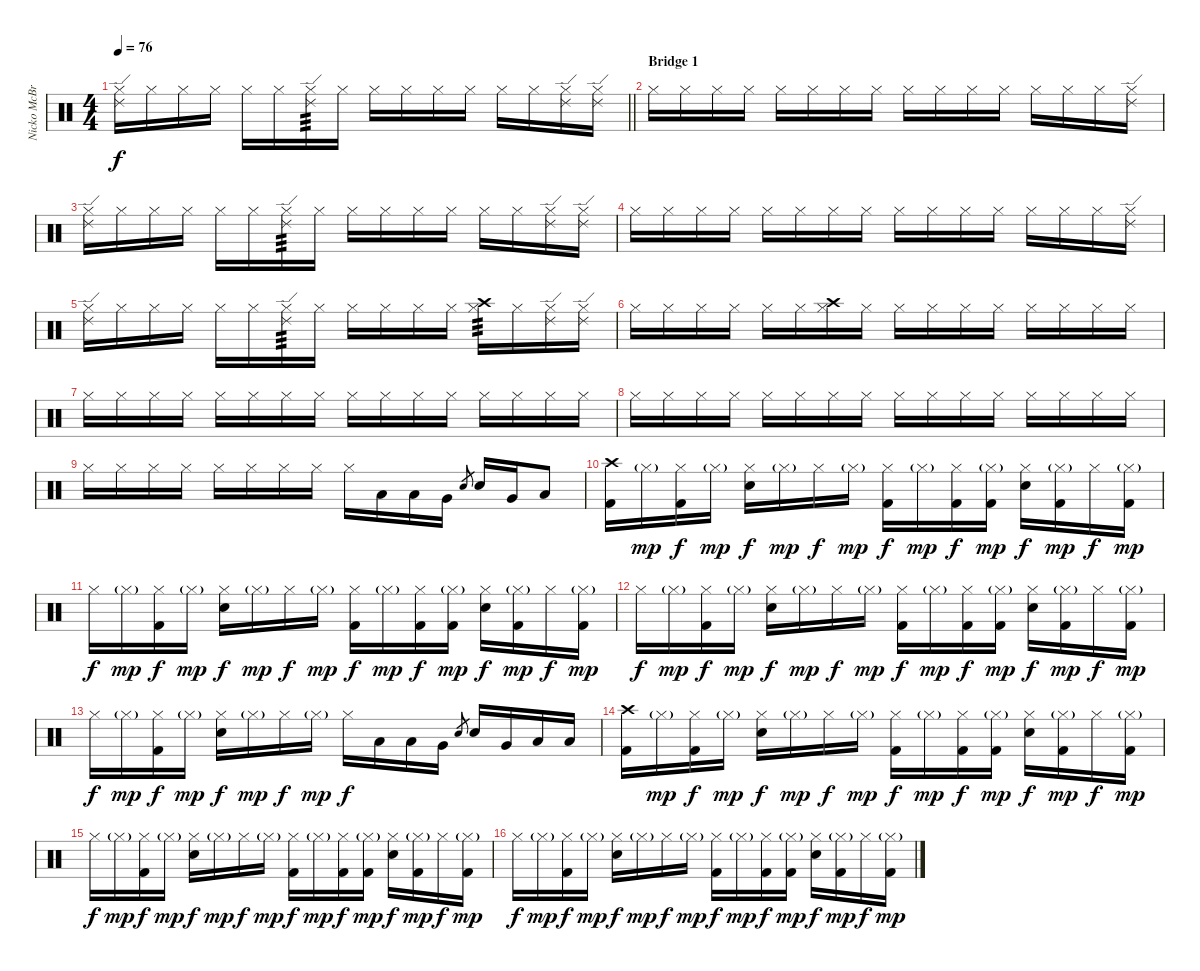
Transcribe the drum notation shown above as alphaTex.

\track ("Nicko McBrain" "Nicko McBr") {instrument percussion}
\staff {score}
\articulation defaults
\ts (4 4)
\tempo 76
\clef neutral
\barLineRight lightlight
\ks c
("Ride (edge) 2" "Hi-Hat (closed)").16{dy f} "Hi-Hat (closed)".16 "Hi-Hat (closed)".16 "Hi-Hat (closed)".16 "Hi-Hat (closed)".16 "Hi-Hat (closed)".16 ("Ride (edge) 2" "Hi-Hat (closed)").16{tp 3} "Hi-Hat (closed)".16 "Hi-Hat (closed)".16 "Hi-Hat (closed)".16 "Hi-Hat (closed)".16 "Hi-Hat (closed)".16 "Hi-Hat (closed)".16 "Hi-Hat (closed)".16 ("Ride (edge) 2" "Hi-Hat (closed)").16 ("Ride (edge) 2" "Hi-Hat (closed)").16 |
\section ("" "Bridge 1")
"Hi-Hat (closed)".16 "Hi-Hat (closed)".16 "Hi-Hat (closed)".16 "Hi-Hat (closed)".16 "Hi-Hat (closed)".16 "Hi-Hat (closed)".16 "Hi-Hat (closed)".16 "Hi-Hat (closed)".16 "Hi-Hat (closed)".16 "Hi-Hat (closed)".16 "Hi-Hat (closed)".16 "Hi-Hat (closed)".16 "Hi-Hat (closed)".16 "Hi-Hat (closed)".16 "Hi-Hat (closed)".16 ("Ride (edge) 2" "Hi-Hat (closed)").16 |
("Ride (edge) 2" "Hi-Hat (closed)").16 "Hi-Hat (closed)".16 "Hi-Hat (closed)".16 "Hi-Hat (closed)".16 "Hi-Hat (closed)".16 "Hi-Hat (closed)".16 ("Ride (edge) 2" "Hi-Hat (closed)").16{tp 3} "Hi-Hat (closed)".16 "Hi-Hat (closed)".16 "Hi-Hat (closed)".16 "Hi-Hat (closed)".16 "Hi-Hat (closed)".16 "Hi-Hat (closed)".16 "Hi-Hat (closed)".16 ("Ride (edge) 2" "Hi-Hat (closed)").16 ("Ride (edge) 2" "Hi-Hat (closed)").16 |
"Hi-Hat (closed)".16 "Hi-Hat (closed)".16 "Hi-Hat (closed)".16 "Hi-Hat (closed)".16 "Hi-Hat (closed)".16 "Hi-Hat (closed)".16 "Hi-Hat (closed)".16 "Hi-Hat (closed)".16 "Hi-Hat (closed)".16 "Hi-Hat (closed)".16 "Hi-Hat (closed)".16 "Hi-Hat (closed)".16 "Hi-Hat (closed)".16 "Hi-Hat (closed)".16 "Hi-Hat (closed)".16 ("Ride (edge) 2" "Hi-Hat (closed)").16 |
("Ride (edge) 2" "Hi-Hat (closed)").16 "Hi-Hat (closed)".16 "Hi-Hat (closed)".16 "Hi-Hat (closed)".16 "Hi-Hat (closed)".16 "Hi-Hat (closed)".16 ("Ride (edge) 2" "Hi-Hat (closed)").16{tp 3} "Hi-Hat (closed)".16 "Hi-Hat (closed)".16 "Hi-Hat (closed)".16 "Hi-Hat (closed)".16 "Hi-Hat (closed)".16 ("Crash high (hit)" "Hi-Hat (closed)").16{tp 3} "Hi-Hat (closed)".16 ("Ride (edge) 2" "Hi-Hat (closed)").16 ("Ride (edge) 2" "Hi-Hat (closed)").16 |
"Hi-Hat (closed)".16 "Hi-Hat (closed)".16 "Hi-Hat (closed)".16 "Hi-Hat (closed)".16 "Hi-Hat (closed)".16 "Hi-Hat (closed)".16 ("Crash high (hit)" "Hi-Hat (closed)").16 "Hi-Hat (closed)".16 "Hi-Hat (closed)".16 "Hi-Hat (closed)".16 "Hi-Hat (closed)".16 "Hi-Hat (closed)".16 "Hi-Hat (closed)".16 "Hi-Hat (closed)".16 "Hi-Hat (closed)".16 "Hi-Hat (closed)".16 |
"Hi-Hat (closed)".16 "Hi-Hat (closed)".16 "Hi-Hat (closed)".16 "Hi-Hat (closed)".16 "Hi-Hat (closed)".16 "Hi-Hat (closed)".16 "Hi-Hat (closed)".16 "Hi-Hat (closed)".16 "Hi-Hat (closed)".16 "Hi-Hat (closed)".16 "Hi-Hat (closed)".16 "Hi-Hat (closed)".16 "Hi-Hat (closed)".16 "Hi-Hat (closed)".16 "Hi-Hat (closed)".16 "Hi-Hat (closed)".16 |
"Hi-Hat (closed)".16 "Hi-Hat (closed)".16 "Hi-Hat (closed)".16 "Hi-Hat (closed)".16 "Hi-Hat (closed)".16 "Hi-Hat (closed)".16 "Hi-Hat (closed)".16 "Hi-Hat (closed)".16 "Hi-Hat (closed)".16 "Hi-Hat (closed)".16 "Hi-Hat (closed)".16 "Hi-Hat (closed)".16 "Hi-Hat (closed)".16 "Hi-Hat (closed)".16 "Hi-Hat (closed)".16 "Hi-Hat (closed)".16 |
"Hi-Hat (closed)".16 "Hi-Hat (closed)".16 "Hi-Hat (closed)".16 "Hi-Hat (closed)".16 "Hi-Hat (closed)".16 "Hi-Hat (closed)".16 "Hi-Hat (closed)".16 "Hi-Hat (closed)".16 "Hi-Hat (closed)".16 "Low Tom (hit)".16 "Low Tom (hit)".16 "Very Low Tom (hit)".16 "Electric Snare (hit)".8{gr} "Electric Snare (hit)".16 "Very Low Tom (hit)".16 "Low Floor Tom (hit)".8 |
("Crash high (hit)" "Kick (hit) 2").16 "Hi-Hat (closed)"{g}.16{dy mp} ("Hi-Hat (closed)" "Kick (hit) 2").16{dy f} "Hi-Hat (closed)"{g}.16{dy mp} ("Hi-Hat (closed)" "Electric Snare (hit)").16{dy f} "Hi-Hat (closed)"{g}.16{dy mp} "Hi-Hat (closed)".16{dy f} "Hi-Hat (closed)"{g}.16{dy mp} ("Hi-Hat (closed)" "Kick (hit) 2").16{dy f} "Hi-Hat (closed)"{g}.16{dy mp} ("Hi-Hat (closed)" "Kick (hit) 2").16{dy f} ("Hi-Hat (closed)"{g} "Kick (hit) 2").16{dy mp} ("Hi-Hat (closed)" "Electric Snare (hit)").16{dy f} ("Hi-Hat (closed)"{g} "Kick (hit) 2").16{dy mp} "Hi-Hat (closed)".16{dy f} ("Hi-Hat (closed)"{g} "Kick (hit) 2").16{dy mp} |
"Hi-Hat (closed)".16{dy f} "Hi-Hat (closed)"{g}.16{dy mp} ("Hi-Hat (closed)" "Kick (hit) 2").16{dy f} "Hi-Hat (closed)"{g}.16{dy mp} ("Hi-Hat (closed)" "Electric Snare (hit)").16{dy f} "Hi-Hat (closed)"{g}.16{dy mp} "Hi-Hat (closed)".16{dy f} "Hi-Hat (closed)"{g}.16{dy mp} ("Hi-Hat (closed)" "Kick (hit) 2").16{dy f} "Hi-Hat (closed)"{g}.16{dy mp} ("Hi-Hat (closed)" "Kick (hit) 2").16{dy f} ("Hi-Hat (closed)"{g} "Kick (hit) 2").16{dy mp} ("Hi-Hat (closed)" "Electric Snare (hit)").16{dy f} ("Hi-Hat (closed)"{g} "Kick (hit) 2").16{dy mp} "Hi-Hat (closed)".16{dy f} ("Hi-Hat (closed)"{g} "Kick (hit) 2").16{dy mp} |
"Hi-Hat (closed)".16{dy f} "Hi-Hat (closed)"{g}.16{dy mp} ("Hi-Hat (closed)" "Kick (hit) 2").16{dy f} "Hi-Hat (closed)"{g}.16{dy mp} ("Hi-Hat (closed)" "Electric Snare (hit)").16{dy f} "Hi-Hat (closed)"{g}.16{dy mp} "Hi-Hat (closed)".16{dy f} "Hi-Hat (closed)"{g}.16{dy mp} ("Hi-Hat (closed)" "Kick (hit) 2").16{dy f} "Hi-Hat (closed)"{g}.16{dy mp} ("Hi-Hat (closed)" "Kick (hit) 2").16{dy f} ("Hi-Hat (closed)"{g} "Kick (hit) 2").16{dy mp} ("Hi-Hat (closed)" "Electric Snare (hit)").16{dy f} ("Hi-Hat (closed)"{g} "Kick (hit) 2").16{dy mp} "Hi-Hat (closed)".16{dy f} ("Hi-Hat (closed)"{g} "Kick (hit) 2").16{dy mp} |
"Hi-Hat (closed)".16{dy f} "Hi-Hat (closed)"{g}.16{dy mp} ("Hi-Hat (closed)" "Kick (hit) 2").16{dy f} "Hi-Hat (closed)"{g}.16{dy mp} ("Hi-Hat (closed)" "Electric Snare (hit)").16{dy f} "Hi-Hat (closed)"{g}.16{dy mp} "Hi-Hat (closed)".16{dy f} "Hi-Hat (closed)"{g}.16{dy mp} "Hi-Hat (closed)".16{dy f} "Low Tom (hit)".16 "Low Tom (hit)".16 "Very Low Tom (hit)".16 "Electric Snare (hit)".8{gr} "Electric Snare (hit)".16 "Very Low Tom (hit)".16 "Low Floor Tom (hit)".16 "Low Floor Tom (hit)".16 |
("Crash high (hit)" "Kick (hit) 2").16 "Hi-Hat (closed)"{g}.16{dy mp} ("Hi-Hat (closed)" "Kick (hit) 2").16{dy f} "Hi-Hat (closed)"{g}.16{dy mp} ("Hi-Hat (closed)" "Electric Snare (hit)").16{dy f} "Hi-Hat (closed)"{g}.16{dy mp} "Hi-Hat (closed)".16{dy f} "Hi-Hat (closed)"{g}.16{dy mp} ("Hi-Hat (closed)" "Kick (hit) 2").16{dy f} "Hi-Hat (closed)"{g}.16{dy mp} ("Hi-Hat (closed)" "Kick (hit) 2").16{dy f} ("Hi-Hat (closed)"{g} "Kick (hit) 2").16{dy mp} ("Hi-Hat (closed)" "Electric Snare (hit)").16{dy f} ("Hi-Hat (closed)"{g} "Kick (hit) 2").16{dy mp} "Hi-Hat (closed)".16{dy f} ("Hi-Hat (closed)"{g} "Kick (hit) 2").16{dy mp} |
"Hi-Hat (closed)".16{dy f} "Hi-Hat (closed)"{g}.16{dy mp} ("Hi-Hat (closed)" "Kick (hit) 2").16{dy f} "Hi-Hat (closed)"{g}.16{dy mp} ("Hi-Hat (closed)" "Electric Snare (hit)").16{dy f} "Hi-Hat (closed)"{g}.16{dy mp} "Hi-Hat (closed)".16{dy f} "Hi-Hat (closed)"{g}.16{dy mp} ("Hi-Hat (closed)" "Kick (hit) 2").16{dy f} "Hi-Hat (closed)"{g}.16{dy mp} ("Hi-Hat (closed)" "Kick (hit) 2").16{dy f} ("Hi-Hat (closed)"{g} "Kick (hit) 2").16{dy mp} ("Hi-Hat (closed)" "Electric Snare (hit)").16{dy f} ("Hi-Hat (closed)"{g} "Kick (hit) 2").16{dy mp} "Hi-Hat (closed)".16{dy f} ("Hi-Hat (closed)"{g} "Kick (hit) 2").16{dy mp} |
"Hi-Hat (closed)".16{dy f} "Hi-Hat (closed)"{g}.16{dy mp} ("Hi-Hat (closed)" "Kick (hit) 2").16{dy f} "Hi-Hat (closed)"{g}.16{dy mp} ("Hi-Hat (closed)" "Electric Snare (hit)").16{dy f} "Hi-Hat (closed)"{g}.16{dy mp} "Hi-Hat (closed)".16{dy f} "Hi-Hat (closed)"{g}.16{dy mp} ("Hi-Hat (closed)" "Kick (hit) 2").16{dy f} "Hi-Hat (closed)"{g}.16{dy mp} ("Hi-Hat (closed)" "Kick (hit) 2").16{dy f} ("Hi-Hat (closed)"{g} "Kick (hit) 2").16{dy mp} ("Hi-Hat (closed)" "Electric Snare (hit)").16{dy f} ("Hi-Hat (closed)"{g} "Kick (hit) 2").16{dy mp} "Hi-Hat (closed)".16{dy f} ("Hi-Hat (closed)"{g} "Kick (hit) 2").16{dy mp}
